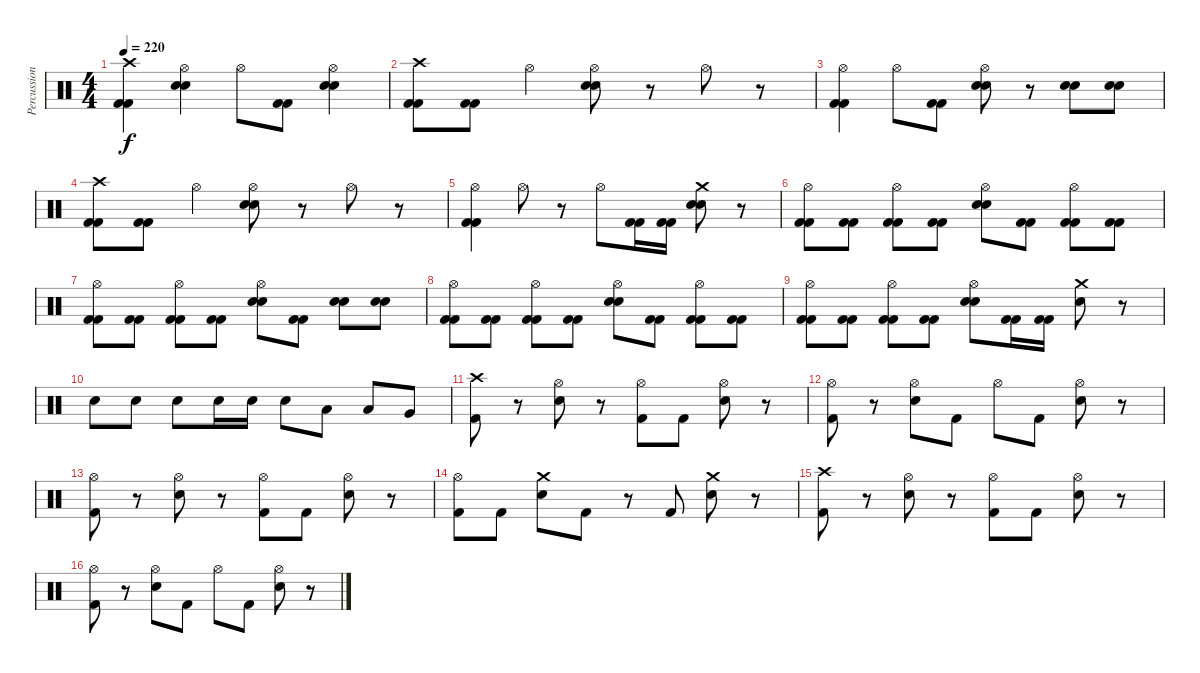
\track ("Percussion" "Percussion") {instrument percussion}
\staff {score}
\articulation defaults
\ts (4 4)
\tempo 220
\clef neutral
\ks c
("Crash high (hit)" "Kick (hit) 2" "Kick (hit) 2").4{dy f} ("Hi-Hat (open)" "Electric Snare (hit)" "Electric Snare (hit)").4 "Hi-Hat (open)".8 ("Kick (hit) 2" "Kick (hit) 2").8 ("Hi-Hat (open)" "Electric Snare (hit)" "Electric Snare (hit)").4 |
("Crash high (hit)" "Kick (hit) 2" "Kick (hit) 2").8{volume 11} ("Kick (hit) 2" "Kick (hit) 2").8 "Hi-Hat (open)".4 ("Hi-Hat (open)" "Electric Snare (hit)" "Electric Snare (hit)").8 r.8 "Hi-Hat (open)".8 r.8 |
("Hi-Hat (open)" "Kick (hit) 2" "Kick (hit) 2").4 "Hi-Hat (open)".8 ("Kick (hit) 2" "Kick (hit) 2").8 ("Hi-Hat (open)" "Electric Snare (hit)" "Electric Snare (hit)").8 r.8 ("Electric Snare (hit)" "Electric Snare (hit)").8 ("Electric Snare (hit)" "Electric Snare (hit)").8 |
("Crash high (hit)" "Kick (hit) 2" "Kick (hit) 2").8 ("Kick (hit) 2" "Kick (hit) 2").8 "Hi-Hat (open)".4 ("Hi-Hat (open)" "Electric Snare (hit)" "Electric Snare (hit)").8 r.8 "Hi-Hat (open)".8 r.8 |
("Hi-Hat (open)" "Kick (hit) 2" "Kick (hit) 2").4 "Hi-Hat (open)".8 r.8 "Hi-Hat (open)".8 ("Kick (hit) 2" "Kick (hit) 2").16 ("Kick (hit) 2" "Kick (hit) 2").16 ("Crash medium (hit)" "Electric Snare (hit)" "Electric Snare (hit)").8 r.8 |
("Hi-Hat (open)" "Kick (hit) 2" "Kick (hit) 2").8 ("Kick (hit) 2" "Kick (hit) 2").8 ("Hi-Hat (open)" "Kick (hit) 2" "Kick (hit) 2").8 ("Kick (hit) 2" "Kick (hit) 2").8 ("Hi-Hat (open)" "Electric Snare (hit)" "Electric Snare (hit)").8 ("Kick (hit) 2" "Kick (hit) 2").8 ("Hi-Hat (open)" "Kick (hit) 2" "Kick (hit) 2").8 ("Kick (hit) 2" "Kick (hit) 2").8 |
("Hi-Hat (open)" "Kick (hit) 2" "Kick (hit) 2").8 ("Kick (hit) 2" "Kick (hit) 2").8 ("Hi-Hat (open)" "Kick (hit) 2" "Kick (hit) 2").8 ("Kick (hit) 2" "Kick (hit) 2").8 ("Hi-Hat (open)" "Electric Snare (hit)" "Electric Snare (hit)").8 ("Kick (hit) 2" "Kick (hit) 2").8 ("Electric Snare (hit)" "Electric Snare (hit)").8 ("Electric Snare (hit)" "Electric Snare (hit)").8 |
("Hi-Hat (open)" "Kick (hit) 2" "Kick (hit) 2").8 ("Kick (hit) 2" "Kick (hit) 2").8 ("Hi-Hat (open)" "Kick (hit) 2" "Kick (hit) 2").8 ("Kick (hit) 2" "Kick (hit) 2").8 ("Hi-Hat (open)" "Electric Snare (hit)" "Electric Snare (hit)").8 ("Kick (hit) 2" "Kick (hit) 2").8 ("Hi-Hat (open)" "Kick (hit) 2" "Kick (hit) 2").8 ("Kick (hit) 2" "Kick (hit) 2").8 |
("Hi-Hat (open)" "Kick (hit) 2" "Kick (hit) 2").8 ("Kick (hit) 2" "Kick (hit) 2").8 ("Hi-Hat (open)" "Kick (hit) 2" "Kick (hit) 2").8 ("Kick (hit) 2" "Kick (hit) 2").8 ("Hi-Hat (open)" "Electric Snare (hit)" "Electric Snare (hit)").8 ("Kick (hit) 2" "Kick (hit) 2").16 ("Kick (hit) 2" "Kick (hit) 2").16 ("Crash medium (hit)" "Snare (hit) 2").8 r.8 |
"Snare (hit) 2".8 "Snare (hit) 2".8 "Snare (hit) 2".8 "Snare (hit) 2".16 "Snare (hit) 2".16 "Snare (hit) 2".8 "Low Tom (hit)".8 "Low Tom (hit)".8 "Very Low Tom (hit)".8 |
("Crash high (hit)" "Kick (hit) 2").8 r.8 ("Hi-Hat (open)" "Snare (hit) 2").8 r.8 ("Hi-Hat (open)" "Kick (hit) 2").8 "Kick (hit) 2".8 ("Hi-Hat (open)" "Snare (hit) 2").8 r.8 |
("Hi-Hat (open)" "Kick (hit) 2").8 r.8 ("Hi-Hat (open)" "Snare (hit) 2").8 "Kick (hit) 2".8 "Hi-Hat (open)".8 "Kick (hit) 2".8 ("Hi-Hat (open)" "Snare (hit) 2").8 r.8 |
("Hi-Hat (open)" "Kick (hit) 2").8 r.8 ("Hi-Hat (open)" "Snare (hit) 2").8 r.8 ("Hi-Hat (open)" "Kick (hit) 2").8 "Kick (hit) 2".8 ("Hi-Hat (open)" "Snare (hit) 2").8 r.8 |
("Hi-Hat (open)" "Kick (hit) 2").8 "Kick (hit) 2".8 ("Crash medium (hit)" "Snare (hit) 2").8 "Kick (hit) 2".8 r.8 "Kick (hit) 2".8 ("Crash medium (hit)" "Snare (hit) 2").8 r.8 |
("Crash high (hit)" "Kick (hit) 2").8 r.8 ("Hi-Hat (open)" "Snare (hit) 2").8 r.8 ("Hi-Hat (open)" "Kick (hit) 2").8 "Kick (hit) 2".8 ("Hi-Hat (open)" "Snare (hit) 2").8 r.8 |
("Hi-Hat (open)" "Kick (hit) 2").8 r.8 ("Hi-Hat (open)" "Snare (hit) 2").8 "Kick (hit) 2".8 "Hi-Hat (open)".8 "Kick (hit) 2".8 ("Hi-Hat (open)" "Snare (hit) 2").8 r.8
